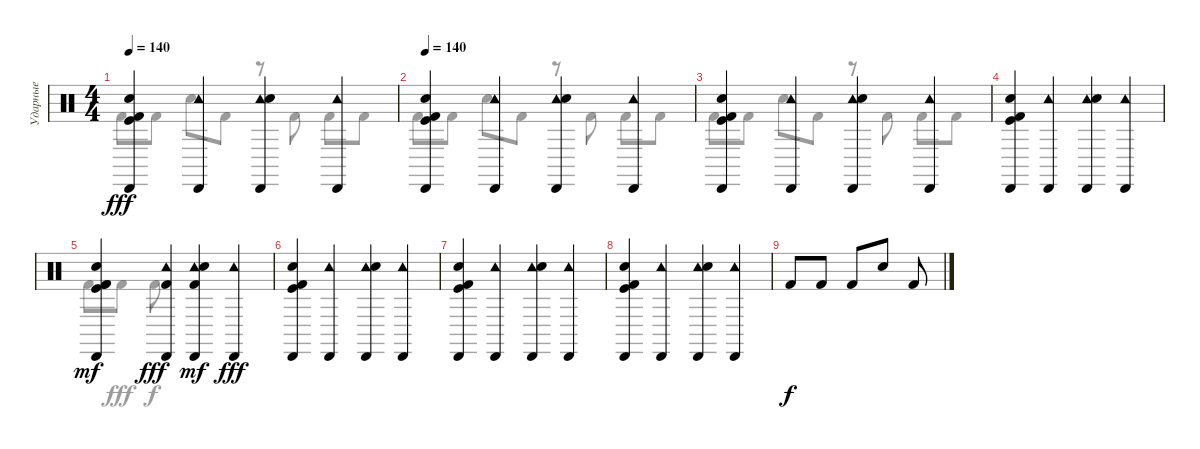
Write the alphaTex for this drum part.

\track ("Ударные" "Ударные") {instrument percussion}
\staff {score}
\articulation defaults
\voice
\ts (4 4)
\tempo 140
\clef neutral
\ks c
("Cabasa (hit)" "Electric Snare (hit)" "Kick (hit) 2" "Kick (hit)").4{dy fff} ("Cabasa (hit)" "Tambourine (hit)").4 ("Cabasa (hit)" "Tambourine (hit)" "Electric Snare (hit)").4 ("Cabasa (hit)" "Tambourine (hit)").4 |
\tempo 140
("Cabasa (hit)" "Electric Snare (hit)" "Kick (hit) 2" "Kick (hit)").4 ("Cabasa (hit)" "Tambourine (hit)").4 ("Cabasa (hit)" "Tambourine (hit)" "Electric Snare (hit)").4 ("Cabasa (hit)" "Tambourine (hit)").4 |
("Cabasa (hit)" "Electric Snare (hit)" "Kick (hit) 2" "Kick (hit)").4 ("Cabasa (hit)" "Tambourine (hit)").4 ("Cabasa (hit)" "Tambourine (hit)" "Electric Snare (hit)").4 ("Cabasa (hit)" "Tambourine (hit)").4 |
("Cabasa (hit)" "Electric Snare (hit)" "Kick (hit)" "Kick (hit) 2").4 ("Cabasa (hit)" "Tambourine (hit)").4 ("Cabasa (hit)" "Tambourine (hit)" "Electric Snare (hit)").4 ("Cabasa (hit)" "Tambourine (hit)").4 |
("Cabasa (hit)" "Electric Snare (hit)" "Kick (hit) 2" "Kick (hit)" "Kick (hit) 2").4{dy mf} ("Cabasa (hit)" "Tambourine (hit)" "Kick (hit) 2").4{dy fff} ("Cabasa (hit)" "Tambourine (hit)" "Electric Snare (hit)" "Kick (hit) 2").4{dy mf} ("Cabasa (hit)" "Tambourine (hit)").4{dy fff} |
("Cabasa (hit)" "Electric Snare (hit)" "Kick (hit) 2" "Kick (hit)").4 ("Cabasa (hit)" "Tambourine (hit)").4 ("Cabasa (hit)" "Tambourine (hit)" "Electric Snare (hit)").4 ("Cabasa (hit)" "Tambourine (hit)").4 |
("Cabasa (hit)" "Electric Snare (hit)" "Kick (hit) 2" "Kick (hit)").4 ("Cabasa (hit)" "Tambourine (hit)").4 ("Cabasa (hit)" "Tambourine (hit)" "Electric Snare (hit)").4 ("Cabasa (hit)" "Tambourine (hit)").4 |
("Cabasa (hit)" "Electric Snare (hit)" "Kick (hit) 2" "Kick (hit)").4 ("Cabasa (hit)" "Tambourine (hit)").4 ("Cabasa (hit)" "Tambourine (hit)" "Electric Snare (hit)").4 ("Cabasa (hit)" "Tambourine (hit)").4 |
"Kick (hit) 2".8{dy f} "Kick (hit) 2".8 "Kick (hit) 2".8 "Snare (hit)".8 "Kick (hit) 2".8
\voice
\clef neutral
\ottava regular
\simile none
\ks c "Kick (hit) 2".8{dy fff} "Kick (hit) 2".8 "Snare (hit)".8 "Kick (hit) 2".8
r.8 "Kick (hit) 2".8 "Kick (hit) 2".8 "Kick (hit) 2".8 |
"Kick (hit) 2".8 "Kick (hit) 2".8 "Snare (hit)".8 "Kick (hit) 2".8 r.8 "Kick (hit) 2".8 "Kick (hit) 2".8 "Kick (hit) 2".8 |
"Kick (hit) 2".8 "Kick (hit) 2".8 "Snare (hit)".8 "Kick (hit) 2".8 r.8 "Kick (hit) 2".8 "Kick (hit) 2".8 "Kick (hit) 2".8 |
|
"Kick (hit) 2".8{dy mf} "Kick (hit) 2".8{dy fff} "Kick (hit) 2".8{dy f} |
|
|
|
